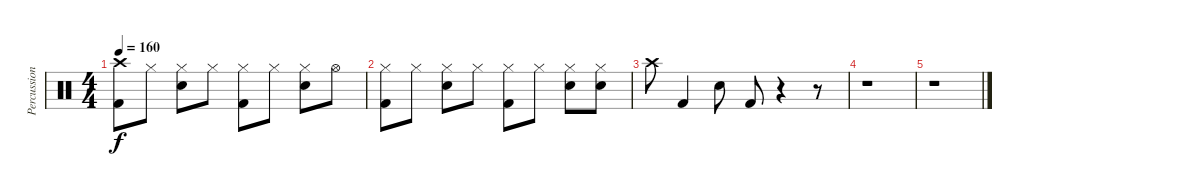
\track ("Percussions" "Percussion") {instrument percussion}
\staff {score}
\articulation defaults
\ts (4 4)
\tempo 160
\clef neutral
\ks c
("Crash high (hit)" "Kick (hit) 2").8{dy f} "Hi-Hat (closed)".8 ("Snare (hit) 2" "Hi-Hat (closed)").8 "Hi-Hat (closed)".8 ("Kick (hit) 2" "Hi-Hat (closed)").8 "Hi-Hat (closed)".8 ("Snare (hit) 2" "Hi-Hat (closed)").8 "Hi-Hat (open)".8 |
("Kick (hit) 2" "Hi-Hat (closed)").8 "Hi-Hat (closed)".8 ("Snare (hit) 2" "Hi-Hat (closed)").8 "Hi-Hat (closed)".8 ("Kick (hit) 2" "Hi-Hat (closed)").8 "Hi-Hat (closed)".8 ("Snare (hit) 2" "Hi-Hat (closed)").8 ("Snare (hit) 2" "Hi-Hat (closed)").8 |
"Crash high (hit)".8 "Kick (hit) 2".4 "Snare (hit) 2".8 "Kick (hit) 2".8 r.4 r.8 |
r.1 |
r.1
